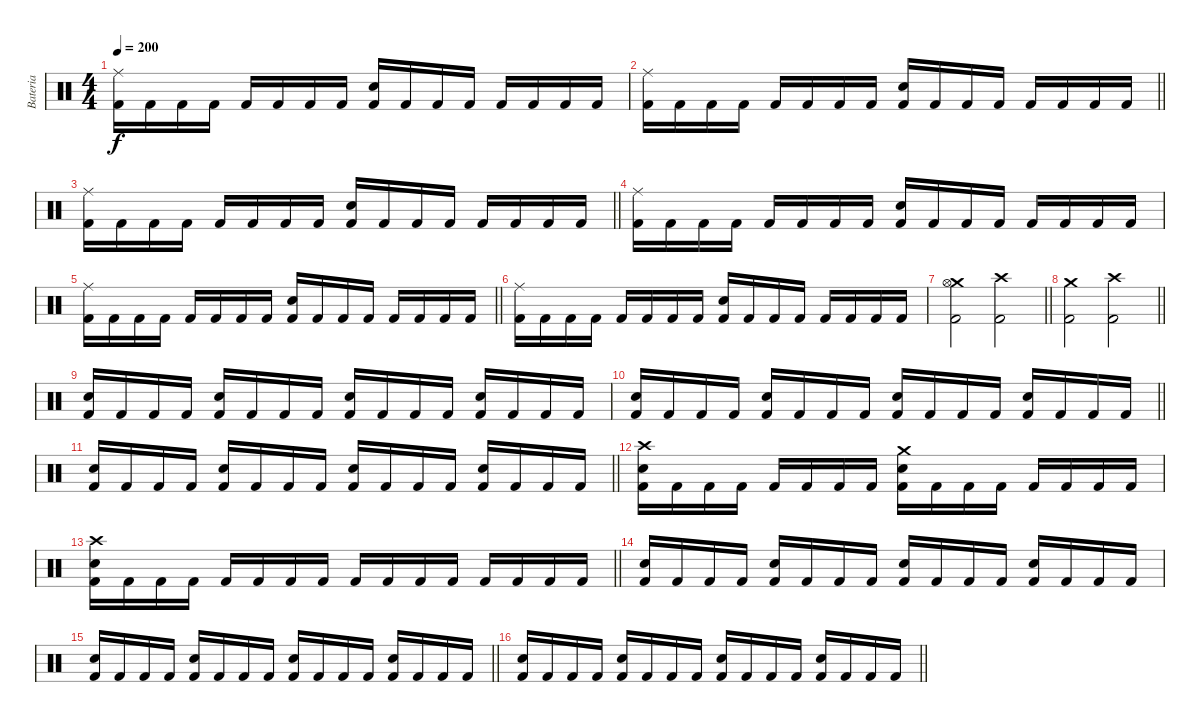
\track ("Bateria" "Bateria") {instrument percussion}
\staff {score}
\articulation defaults
\ts (4 4)
\tempo 200
\clef neutral
\ks c
("Ride (middle)" "Kick (hit) 2").16{dy f} "Kick (hit) 2".16 "Kick (hit) 2".16 "Kick (hit) 2".16 "Kick (hit) 2".16 "Kick (hit) 2".16 "Kick (hit) 2".16 "Kick (hit) 2".16 ("Electric Snare (hit)" "Kick (hit) 2").16 "Kick (hit) 2".16 "Kick (hit) 2".16 "Kick (hit) 2".16 "Kick (hit) 2".16 "Kick (hit) 2".16 "Kick (hit) 2".16 "Kick (hit) 2".16 |
\barLineRight lightlight
("Ride (middle)" "Kick (hit) 2").16 "Kick (hit) 2".16 "Kick (hit) 2".16 "Kick (hit) 2".16 "Kick (hit) 2".16 "Kick (hit) 2".16 "Kick (hit) 2".16 "Kick (hit) 2".16 ("Electric Snare (hit)" "Kick (hit) 2").16 "Kick (hit) 2".16 "Kick (hit) 2".16 "Kick (hit) 2".16 "Kick (hit) 2".16 "Kick (hit) 2".16 "Kick (hit) 2".16 "Kick (hit) 2".16 |
\barLineRight lightlight
("Ride (middle)" "Kick (hit) 2").16 "Kick (hit) 2".16 "Kick (hit) 2".16 "Kick (hit) 2".16 "Kick (hit) 2".16 "Kick (hit) 2".16 "Kick (hit) 2".16 "Kick (hit) 2".16 ("Electric Snare (hit)" "Kick (hit) 2").16 "Kick (hit) 2".16 "Kick (hit) 2".16 "Kick (hit) 2".16 "Kick (hit) 2".16 "Kick (hit) 2".16 "Kick (hit) 2".16 "Kick (hit) 2".16 |
("Ride (middle)" "Kick (hit) 2").16 "Kick (hit) 2".16 "Kick (hit) 2".16 "Kick (hit) 2".16 "Kick (hit) 2".16 "Kick (hit) 2".16 "Kick (hit) 2".16 "Kick (hit) 2".16 ("Electric Snare (hit)" "Kick (hit) 2").16 "Kick (hit) 2".16 "Kick (hit) 2".16 "Kick (hit) 2".16 "Kick (hit) 2".16 "Kick (hit) 2".16 "Kick (hit) 2".16 "Kick (hit) 2".16 |
\barLineRight lightlight
("Ride (middle)" "Kick (hit) 2").16 "Kick (hit) 2".16 "Kick (hit) 2".16 "Kick (hit) 2".16 "Kick (hit) 2".16 "Kick (hit) 2".16 "Kick (hit) 2".16 "Kick (hit) 2".16 ("Electric Snare (hit)" "Kick (hit) 2").16 "Kick (hit) 2".16 "Kick (hit) 2".16 "Kick (hit) 2".16 "Kick (hit) 2".16 "Kick (hit) 2".16 "Kick (hit) 2".16 "Kick (hit) 2".16 |
("Ride (middle)" "Kick (hit) 2").16 "Kick (hit) 2".16 "Kick (hit) 2".16 "Kick (hit) 2".16 "Kick (hit) 2".16 "Kick (hit) 2".16 "Kick (hit) 2".16 "Kick (hit) 2".16 ("Electric Snare (hit)" "Kick (hit) 2").16 "Kick (hit) 2".16 "Kick (hit) 2".16 "Kick (hit) 2".16 "Kick (hit) 2".16 "Kick (hit) 2".16 "Kick (hit) 2".16 "Kick (hit) 2".16 |
\barLineRight lightlight
("Crash medium (hit)" "Hi-Hat (open)" "Kick (hit) 2").2 ("Crash high (hit)" "Kick (hit) 2").2 |
\barLineRight lightlight
("Crash medium (hit)" "Kick (hit) 2").2 ("Crash high (hit)" "Kick (hit) 2").2 |
("Electric Snare (hit)" "Kick (hit) 2").16 "Kick (hit) 2".16 "Kick (hit) 2".16 "Kick (hit) 2".16 ("Electric Snare (hit)" "Kick (hit) 2").16 "Kick (hit) 2".16 "Kick (hit) 2".16 "Kick (hit) 2".16 ("Electric Snare (hit)" "Kick (hit) 2").16 "Kick (hit) 2".16 "Kick (hit) 2".16 "Kick (hit) 2".16 ("Electric Snare (hit)" "Kick (hit) 2").16 "Kick (hit) 2".16 "Kick (hit) 2".16 "Kick (hit) 2".16 |
\barLineRight lightlight
("Electric Snare (hit)" "Kick (hit) 2").16 "Kick (hit) 2".16 "Kick (hit) 2".16 "Kick (hit) 2".16 ("Electric Snare (hit)" "Kick (hit) 2").16 "Kick (hit) 2".16 "Kick (hit) 2".16 "Kick (hit) 2".16 ("Electric Snare (hit)" "Kick (hit) 2").16 "Kick (hit) 2".16 "Kick (hit) 2".16 "Kick (hit) 2".16 ("Electric Snare (hit)" "Kick (hit) 2").16 "Kick (hit) 2".16 "Kick (hit) 2".16 "Kick (hit) 2".16 |
\barLineRight lightlight
("Electric Snare (hit)" "Kick (hit) 2").16 "Kick (hit) 2".16 "Kick (hit) 2".16 "Kick (hit) 2".16 ("Electric Snare (hit)" "Kick (hit) 2").16 "Kick (hit) 2".16 "Kick (hit) 2".16 "Kick (hit) 2".16 ("Electric Snare (hit)" "Kick (hit) 2").16 "Kick (hit) 2".16 "Kick (hit) 2".16 "Kick (hit) 2".16 ("Electric Snare (hit)" "Kick (hit) 2").16 "Kick (hit) 2".16 "Kick (hit) 2".16 "Kick (hit) 2".16 |
("Crash high (hit)" "Electric Snare (hit)" "Kick (hit) 2").16 "Kick (hit) 2".16 "Kick (hit) 2".16 "Kick (hit) 2".16 "Kick (hit) 2".16 "Kick (hit) 2".16 "Kick (hit) 2".16 "Kick (hit) 2".16 ("Crash medium (hit)" "Electric Snare (hit)" "Kick (hit) 2").16 "Kick (hit) 2".16 "Kick (hit) 2".16 "Kick (hit) 2".16 "Kick (hit) 2".16 "Kick (hit) 2".16 "Kick (hit) 2".16 "Kick (hit) 2".16 |
\barLineRight lightlight
("Crash high (hit)" "Electric Snare (hit)" "Kick (hit) 2").16 "Kick (hit) 2".16 "Kick (hit) 2".16 "Kick (hit) 2".16 "Kick (hit) 2".16 "Kick (hit) 2".16 "Kick (hit) 2".16 "Kick (hit) 2".16 "Kick (hit) 2".16 "Kick (hit) 2".16 "Kick (hit) 2".16 "Kick (hit) 2".16 "Kick (hit) 2".16 "Kick (hit) 2".16 "Kick (hit) 2".16 "Kick (hit) 2".16 |
("Electric Snare (hit)" "Kick (hit) 2").16 "Kick (hit) 2".16 "Kick (hit) 2".16 "Kick (hit) 2".16 ("Electric Snare (hit)" "Kick (hit) 2").16 "Kick (hit) 2".16 "Kick (hit) 2".16 "Kick (hit) 2".16 ("Electric Snare (hit)" "Kick (hit) 2").16 "Kick (hit) 2".16 "Kick (hit) 2".16 "Kick (hit) 2".16 ("Electric Snare (hit)" "Kick (hit) 2").16 "Kick (hit) 2".16 "Kick (hit) 2".16 "Kick (hit) 2".16 |
\barLineRight lightlight
("Electric Snare (hit)" "Kick (hit) 2").16 "Kick (hit) 2".16 "Kick (hit) 2".16 "Kick (hit) 2".16 ("Electric Snare (hit)" "Kick (hit) 2").16 "Kick (hit) 2".16 "Kick (hit) 2".16 "Kick (hit) 2".16 ("Electric Snare (hit)" "Kick (hit) 2").16 "Kick (hit) 2".16 "Kick (hit) 2".16 "Kick (hit) 2".16 ("Electric Snare (hit)" "Kick (hit) 2").16 "Kick (hit) 2".16 "Kick (hit) 2".16 "Kick (hit) 2".16 |
\barLineRight lightlight
("Electric Snare (hit)" "Kick (hit) 2").16 "Kick (hit) 2".16 "Kick (hit) 2".16 "Kick (hit) 2".16 ("Electric Snare (hit)" "Kick (hit) 2").16 "Kick (hit) 2".16 "Kick (hit) 2".16 "Kick (hit) 2".16 ("Electric Snare (hit)" "Kick (hit) 2").16 "Kick (hit) 2".16 "Kick (hit) 2".16 "Kick (hit) 2".16 ("Electric Snare (hit)" "Kick (hit) 2").16 "Kick (hit) 2".16 "Kick (hit) 2".16 "Kick (hit) 2".16
